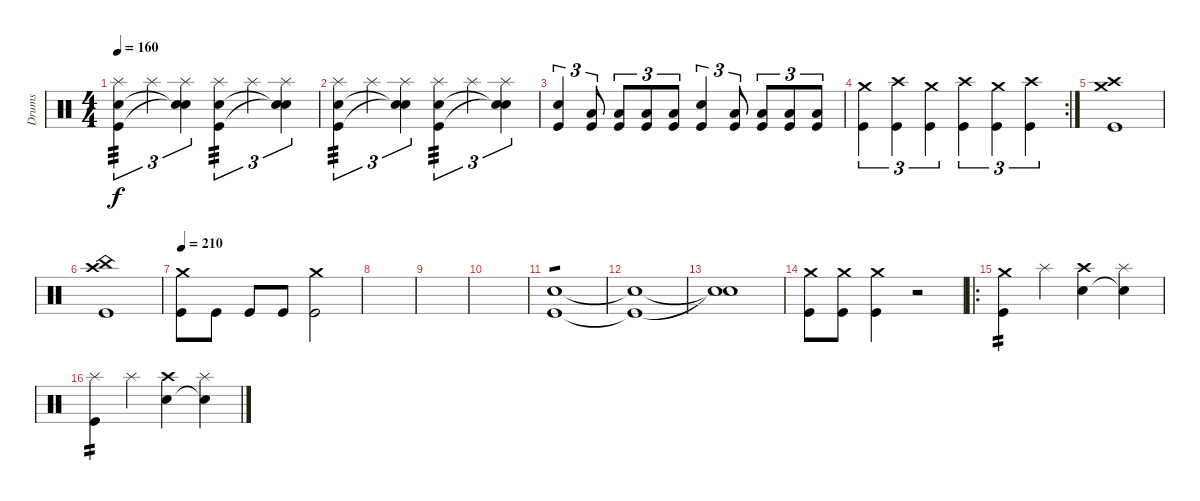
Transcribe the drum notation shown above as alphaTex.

\track ("Drums" "Drums") {instrument percussion}
\staff {score}
\articulation defaults
\ts (4 4)
\tempo 160
\clef neutral
\ks c
("Splash (hit)" "Electric Snare (hit)" "Kick (hit)").4{tu (3 2) tp 3 dy f} "Splash (hit)".4{tu (3 2)} ("Splash (hit)" "Snare (hit)"{t} "Snare (hit)"{t}).4{tu (3 2)} ("Splash (hit)" "Electric Snare (hit)" "Kick (hit)").4{tu (3 2) tp 3} "Splash (hit)".4{tu (3 2)} ("Splash (hit)" "Snare (hit)"{t} "Snare (hit)"{t}).4{tu (3 2)} |
("Splash (hit)" "Electric Snare (hit)" "Kick (hit)").4{tu (3 2) tp 3} "Splash (hit)".4{tu (3 2)} ("Splash (hit)" "Snare (hit)"{t} "Snare (hit)"{t}).4{tu (3 2)} ("Splash (hit)" "Electric Snare (hit)" "Kick (hit)").4{tu (3 2) tp 3} "Splash (hit)".4{tu (3 2)} ("Splash (hit)" "Snare (hit)"{t} "Snare (hit)"{t}).4{tu (3 2)} |
("Electric Snare (hit)" "Kick (hit)").4{tu (3 2)} ("Low Tom (hit)" "Kick (hit)").8{tu (3 2)} ("Low Tom (hit)" "Kick (hit)").8{tu (3 2)} ("Low Tom (hit)" "Kick (hit)").8{tu (3 2)} ("Low Tom (hit)" "Kick (hit)").8{tu (3 2)} ("Electric Snare (hit)" "Kick (hit)").4{tu (3 2)} ("Low Tom (hit)" "Kick (hit)").8{tu (3 2)} ("Low Tom (hit)" "Kick (hit)").8{tu (3 2)} ("Low Tom (hit)" "Kick (hit)").8{tu (3 2)} ("Low Tom (hit)" "Kick (hit)").8{tu (3 2)} |
\rc 2
("Crash medium (hit)" "Kick (hit)").4{tu (3 2)} ("Crash high (hit)" "Kick (hit)").4{tu (3 2)} ("Crash medium (hit)" "Kick (hit)").4{tu (3 2)} ("Crash high (hit)" "Kick (hit)").4{tu (3 2)} ("Crash medium (hit)" "Kick (hit)").4{tu (3 2)} ("Crash high (hit)" "Kick (hit)").4{tu (3 2)} |
("Crash medium (hit)" "Crash high (hit)" "Kick (hit)").1 |
("Crash high (hit)" "China (hit)" "Kick (hit)").1 |
\tempo 210
("Crash medium (hit)" "Kick (hit)").8 "Kick (hit)".8 "Kick (hit)".8 "Kick (hit)".8 ("Crash medium (hit)" "Kick (hit)").2 |
|
|
|
("Electric Snare (hit)" "Kick (hit)").1{tp 1} |
("Electric Snare (hit)"{t} "Kick (hit)"{t}).1 |
("Snare (hit)"{t} "Snare (hit)"{t}).1 |
("Crash medium (hit)" "Kick (hit)").8 ("Crash medium (hit)" "Kick (hit)").8 ("Crash medium (hit)" "Kick (hit)").4 r.2 |
\ro
("Crash medium (hit)" "Kick (hit)").4{tp 2} "Splash (hit)".4 ("Crash high (hit)" "Electric Snare (hit)").4 ("Splash (hit)" "Snare (hit)"{t}).4 |
("Splash (hit)" "Kick (hit)").4{tp 2} "Splash (hit)".4 ("Crash high (hit)" "Electric Snare (hit)").4 ("Splash (hit)" "Snare (hit)"{t}).4
